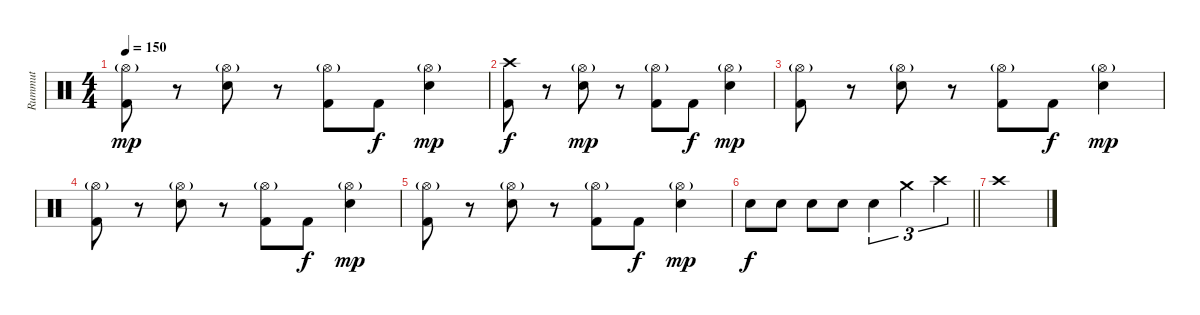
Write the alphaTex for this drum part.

\track ("Rummut" "Rummut") {instrument percussion bank 69}
\staff {score}
\articulation defaults
\ts (4 4)
\tempo 150
\clef neutral
\ks c
("Hi-Hat (open)"{g} "Kick (hit) 2").8{dy mp} r.8 ("Hi-Hat (open)"{g} "Snare (hit) 2").8 r.8 ("Hi-Hat (open)"{g} "Kick (hit) 2").8 "Kick (hit) 2".8{dy f} ("Hi-Hat (open)"{g} "Snare (hit) 2").4{dy mp} |
("Crash high (hit)" "Kick (hit) 2").8{dy f} r.8 ("Hi-Hat (open)"{g} "Snare (hit) 2").8{dy mp} r.8 ("Hi-Hat (open)"{g} "Kick (hit) 2").8 "Kick (hit) 2".8{dy f} ("Hi-Hat (open)"{g} "Snare (hit) 2").4{dy mp} |
("Hi-Hat (open)"{g} "Kick (hit) 2").8 r.8 ("Hi-Hat (open)"{g} "Snare (hit) 2").8 r.8 ("Hi-Hat (open)"{g} "Kick (hit) 2").8 "Kick (hit) 2".8{dy f} ("Hi-Hat (open)"{g} "Snare (hit) 2").4{dy mp} |
("Hi-Hat (open)"{g} "Kick (hit) 2").8 r.8 ("Hi-Hat (open)"{g} "Snare (hit) 2").8 r.8 ("Hi-Hat (open)"{g} "Kick (hit) 2").8 "Kick (hit) 2".8{dy f} ("Hi-Hat (open)"{g} "Snare (hit) 2").4{dy mp} |
("Hi-Hat (open)"{g} "Kick (hit) 2").8 r.8 ("Hi-Hat (open)"{g} "Snare (hit) 2").8 r.8 ("Hi-Hat (open)"{g} "Kick (hit) 2").8 "Kick (hit) 2".8{dy f} ("Hi-Hat (open)"{g} "Snare (hit) 2").4{dy mp} |
\barLineRight lightlight "Snare (hit) 2".8{dy f} "Snare (hit) 2".8 "Snare (hit) 2".8 "Snare (hit) 2".8 "Snare (hit) 2".4{tu (3 2)} "Crash medium (hit)".4{tu (3 2)} "Crash high (hit)".4{tu (3 2)}
|
"Crash high (hit)".1
